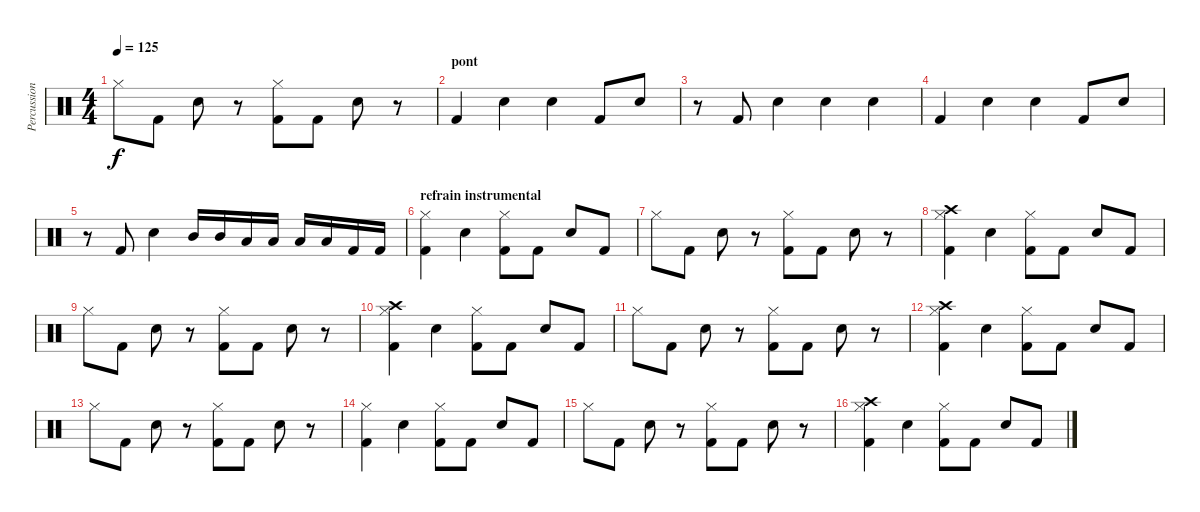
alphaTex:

\track ("Percussions" "Percussion") {instrument percussion}
\staff {score}
\articulation defaults
\ts (4 4)
\tempo 125
\clef neutral
\ks c "Hi-Hat (closed)".8{dy f} "Kick (hit) 2".8 "Snare (hit) 2".8
r.8 ("Hi-Hat (closed)" "Kick (hit) 2").8 "Kick (hit) 2".8 "Snare (hit) 2".8 r.8 |
\section ("" "pont")
"Kick (hit) 2".4 "Snare (hit) 2".4 "Snare (hit) 2".4 "Kick (hit) 2".8 "Snare (hit) 2".8 |
r.8 "Kick (hit) 2".8 "Snare (hit) 2".4 "Snare (hit) 2".4 "Snare (hit) 2".4 |
"Kick (hit) 2".4 "Snare (hit) 2".4 "Snare (hit) 2".4 "Kick (hit) 2".8 "Snare (hit) 2".8 |
r.8 "Kick (hit) 2".8 "Snare (hit) 2".4 "Mid Tom (hit)".16 "Mid Tom (hit)".16 "Low Tom (hit)".16 "Low Tom (hit)".16 "Low Floor Tom (hit)".16 "Low Floor Tom (hit)".16 "Kick (hit) 2".16 "Kick (hit) 2".16 |
\section ("" "refrain instrumental")
("Hi-Hat (closed)" "Kick (hit) 2").4 "Snare (hit) 2".4 ("Hi-Hat (closed)" "Kick (hit) 2").8 "Kick (hit) 2".8 "Snare (hit) 2".8 "Kick (hit) 2".8 |
"Hi-Hat (closed)".8 "Kick (hit) 2".8 "Snare (hit) 2".8 r.8 ("Hi-Hat (closed)" "Kick (hit) 2").8 "Kick (hit) 2".8 "Snare (hit) 2".8 r.8 |
("Crash high (hit)" "Hi-Hat (closed)" "Kick (hit) 2").4 "Snare (hit) 2".4 ("Hi-Hat (closed)" "Kick (hit) 2").8 "Kick (hit) 2".8 "Snare (hit) 2".8 "Kick (hit) 2".8 |
"Hi-Hat (closed)".8 "Kick (hit) 2".8 "Snare (hit) 2".8 r.8 ("Hi-Hat (closed)" "Kick (hit) 2").8 "Kick (hit) 2".8 "Snare (hit) 2".8 r.8 |
("Crash high (hit)" "Hi-Hat (closed)" "Kick (hit) 2").4 "Snare (hit) 2".4 ("Hi-Hat (closed)" "Kick (hit) 2").8 "Kick (hit) 2".8 "Snare (hit) 2".8 "Kick (hit) 2".8 |
"Hi-Hat (closed)".8 "Kick (hit) 2".8 "Snare (hit) 2".8 r.8 ("Hi-Hat (closed)" "Kick (hit) 2").8 "Kick (hit) 2".8 "Snare (hit) 2".8 r.8 |
("Crash high (hit)" "Hi-Hat (closed)" "Kick (hit) 2").4 "Snare (hit) 2".4 ("Hi-Hat (closed)" "Kick (hit) 2").8 "Kick (hit) 2".8 "Snare (hit) 2".8 "Kick (hit) 2".8 |
"Hi-Hat (closed)".8 "Kick (hit) 2".8 "Snare (hit) 2".8 r.8 ("Hi-Hat (closed)" "Kick (hit) 2").8 "Kick (hit) 2".8 "Snare (hit) 2".8 r.8 |
("Hi-Hat (closed)" "Kick (hit) 2").4 "Snare (hit) 2".4 ("Hi-Hat (closed)" "Kick (hit) 2").8 "Kick (hit) 2".8 "Snare (hit) 2".8 "Kick (hit) 2".8 |
"Hi-Hat (closed)".8 "Kick (hit) 2".8 "Snare (hit) 2".8 r.8 ("Hi-Hat (closed)" "Kick (hit) 2").8 "Kick (hit) 2".8 "Snare (hit) 2".8 r.8 |
("Crash high (hit)" "Hi-Hat (closed)" "Kick (hit) 2").4 "Snare (hit) 2".4 ("Hi-Hat (closed)" "Kick (hit) 2").8 "Kick (hit) 2".8 "Snare (hit) 2".8 "Kick (hit) 2".8
